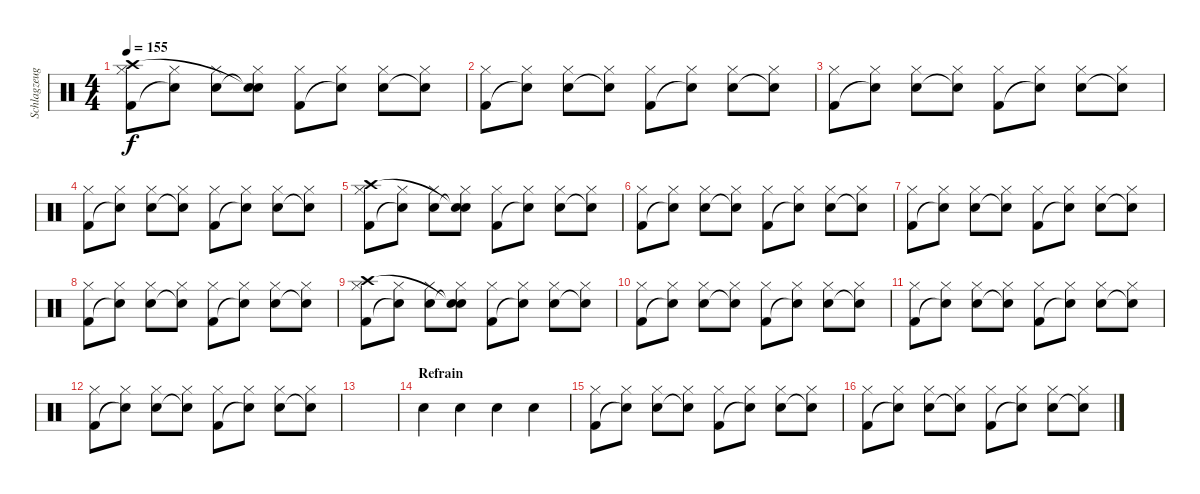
\track ("Schlagzeug" "Schlagzeug") {instrument percussion}
\staff {score}
\articulation defaults
\ts (4 4)
\tempo 155
\clef neutral
\ks c
("Hi-Hat (closed)" "Kick (hit) 2" "Crash high (hit)").8{dy f} ("Hi-Hat (closed)" "Snare (hit) 2"{t}).8 ("Hi-Hat (closed)" "Snare (hit) 2").8 ("Hi-Hat (closed)" "Snare (hit)"{t} "Snare (hit)"{t}).8 ("Hi-Hat (closed)" "Kick (hit) 2").8 ("Hi-Hat (closed)" "Snare (hit)"{t}).8 ("Hi-Hat (closed)" "Snare (hit) 2").8 ("Hi-Hat (closed)" "Snare (hit)"{t}).8 |
("Hi-Hat (closed)" "Kick (hit) 2").8 ("Hi-Hat (closed)" "Snare (hit) 2"{t}).8 ("Hi-Hat (closed)" "Snare (hit) 2").8 ("Hi-Hat (closed)" "Snare (hit)"{t}).8 ("Hi-Hat (closed)" "Kick (hit) 2").8 ("Hi-Hat (closed)" "Snare (hit)"{t}).8 ("Hi-Hat (closed)" "Snare (hit) 2").8 ("Hi-Hat (closed)" "Snare (hit)"{t}).8 |
("Hi-Hat (closed)" "Kick (hit) 2").8 ("Hi-Hat (closed)" "Snare (hit) 2"{t}).8 ("Hi-Hat (closed)" "Snare (hit) 2").8 ("Hi-Hat (closed)" "Snare (hit)"{t}).8 ("Hi-Hat (closed)" "Kick (hit) 2").8 ("Hi-Hat (closed)" "Snare (hit)"{t}).8 ("Hi-Hat (closed)" "Snare (hit) 2").8 ("Hi-Hat (closed)" "Snare (hit)"{t}).8 |
("Hi-Hat (closed)" "Kick (hit) 2").8 ("Hi-Hat (closed)" "Snare (hit) 2"{t}).8 ("Hi-Hat (closed)" "Snare (hit) 2").8 ("Hi-Hat (closed)" "Snare (hit)"{t}).8 ("Hi-Hat (closed)" "Kick (hit) 2").8 ("Hi-Hat (closed)" "Snare (hit)"{t}).8 ("Hi-Hat (closed)" "Snare (hit) 2").8 ("Hi-Hat (closed)" "Snare (hit)"{t}).8 |
("Hi-Hat (closed)" "Kick (hit) 2" "Crash high (hit)").8 ("Hi-Hat (closed)" "Snare (hit) 2"{t}).8 ("Hi-Hat (closed)" "Snare (hit) 2").8 ("Hi-Hat (closed)" "Snare (hit)"{t} "Snare (hit)"{t}).8 ("Hi-Hat (closed)" "Kick (hit) 2").8 ("Hi-Hat (closed)" "Snare (hit)"{t}).8 ("Hi-Hat (closed)" "Snare (hit) 2").8 ("Hi-Hat (closed)" "Snare (hit)"{t}).8 |
("Hi-Hat (closed)" "Kick (hit) 2").8 ("Hi-Hat (closed)" "Snare (hit) 2"{t}).8 ("Hi-Hat (closed)" "Snare (hit) 2").8 ("Hi-Hat (closed)" "Snare (hit)"{t}).8 ("Hi-Hat (closed)" "Kick (hit) 2").8 ("Hi-Hat (closed)" "Snare (hit)"{t}).8 ("Hi-Hat (closed)" "Snare (hit) 2").8 ("Hi-Hat (closed)" "Snare (hit)"{t}).8 |
("Hi-Hat (closed)" "Kick (hit) 2").8 ("Hi-Hat (closed)" "Snare (hit) 2"{t}).8 ("Hi-Hat (closed)" "Snare (hit) 2").8 ("Hi-Hat (closed)" "Snare (hit)"{t}).8 ("Hi-Hat (closed)" "Kick (hit) 2").8 ("Hi-Hat (closed)" "Snare (hit)"{t}).8 ("Hi-Hat (closed)" "Snare (hit) 2").8 ("Hi-Hat (closed)" "Snare (hit)"{t}).8 |
("Hi-Hat (closed)" "Kick (hit) 2").8 ("Hi-Hat (closed)" "Snare (hit) 2"{t}).8 ("Hi-Hat (closed)" "Snare (hit) 2").8 ("Hi-Hat (closed)" "Snare (hit)"{t}).8 ("Hi-Hat (closed)" "Kick (hit) 2").8 ("Hi-Hat (closed)" "Snare (hit)"{t}).8 ("Hi-Hat (closed)" "Snare (hit) 2").8 ("Hi-Hat (closed)" "Snare (hit)"{t}).8 |
("Hi-Hat (closed)" "Kick (hit) 2" "Crash high (hit)").8 ("Hi-Hat (closed)" "Snare (hit) 2"{t}).8 ("Hi-Hat (closed)" "Snare (hit) 2").8 ("Hi-Hat (closed)" "Snare (hit)"{t} "Snare (hit)"{t}).8 ("Hi-Hat (closed)" "Kick (hit) 2").8 ("Hi-Hat (closed)" "Snare (hit)"{t}).8 ("Hi-Hat (closed)" "Snare (hit) 2").8 ("Hi-Hat (closed)" "Snare (hit)"{t}).8 |
("Hi-Hat (closed)" "Kick (hit) 2").8 ("Hi-Hat (closed)" "Snare (hit) 2"{t}).8 ("Hi-Hat (closed)" "Snare (hit) 2").8 ("Hi-Hat (closed)" "Snare (hit)"{t}).8 ("Hi-Hat (closed)" "Kick (hit) 2").8 ("Hi-Hat (closed)" "Snare (hit)"{t}).8 ("Hi-Hat (closed)" "Snare (hit) 2").8 ("Hi-Hat (closed)" "Snare (hit)"{t}).8 |
("Hi-Hat (closed)" "Kick (hit) 2").8 ("Hi-Hat (closed)" "Snare (hit) 2"{t}).8 ("Hi-Hat (closed)" "Snare (hit) 2").8 ("Hi-Hat (closed)" "Snare (hit)"{t}).8 ("Hi-Hat (closed)" "Kick (hit) 2").8 ("Hi-Hat (closed)" "Snare (hit)"{t}).8 ("Hi-Hat (closed)" "Snare (hit) 2").8 ("Hi-Hat (closed)" "Snare (hit)"{t}).8 |
("Hi-Hat (closed)" "Kick (hit) 2").8 ("Hi-Hat (closed)" "Snare (hit) 2"{t}).8 ("Hi-Hat (closed)" "Snare (hit) 2").8 ("Hi-Hat (closed)" "Snare (hit)"{t}).8 ("Hi-Hat (closed)" "Kick (hit) 2").8 ("Hi-Hat (closed)" "Snare (hit)"{t}).8 ("Hi-Hat (closed)" "Snare (hit) 2").8 ("Hi-Hat (closed)" "Snare (hit)"{t}).8 |
|
\section ("" "Refrain")
"Snare (hit) 2".4 "Snare (hit) 2".4 "Snare (hit) 2".4 "Snare (hit) 2".4 |
("Hi-Hat (closed)" "Kick (hit) 2").8 ("Hi-Hat (closed)" "Snare (hit) 2"{t}).8 ("Hi-Hat (closed)" "Snare (hit) 2").8 ("Hi-Hat (closed)" "Snare (hit)"{t}).8 ("Hi-Hat (closed)" "Kick (hit) 2").8 ("Hi-Hat (closed)" "Snare (hit)"{t}).8 ("Hi-Hat (closed)" "Snare (hit) 2").8 ("Hi-Hat (closed)" "Snare (hit)"{t}).8 |
("Hi-Hat (closed)" "Kick (hit) 2").8 ("Hi-Hat (closed)" "Snare (hit) 2"{t}).8 ("Hi-Hat (closed)" "Snare (hit) 2").8 ("Hi-Hat (closed)" "Snare (hit)"{t}).8 ("Hi-Hat (closed)" "Kick (hit) 2").8 ("Hi-Hat (closed)" "Snare (hit)"{t}).8 ("Hi-Hat (closed)" "Snare (hit) 2").8 ("Hi-Hat (closed)" "Snare (hit)"{t}).8
